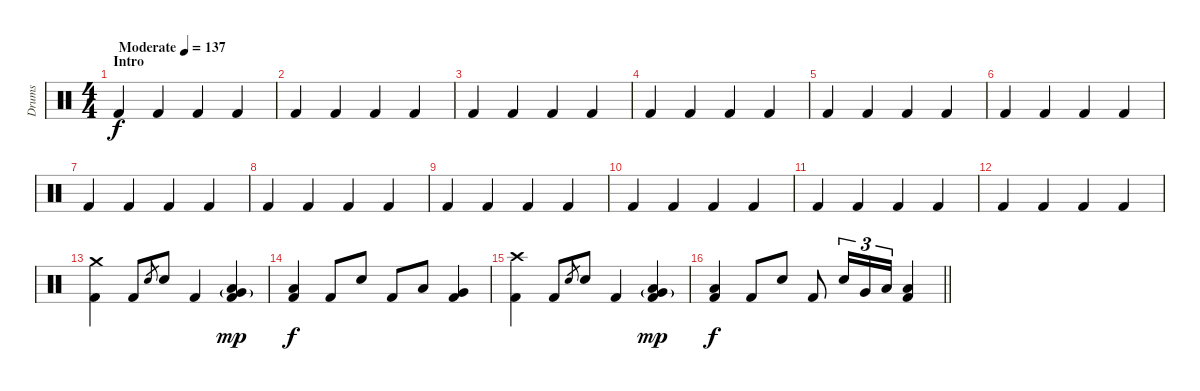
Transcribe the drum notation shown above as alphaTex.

\track ("Drums" "Drums") {instrument percussion}
\staff {score}
\articulation defaults
\ts (4 4)
\section ("" "Intro")
\tempo (137 "Moderate")
\clef neutral
\ks c "Kick (hit) 2".4{dy f} "Kick (hit) 2".4 "Kick (hit) 2".4 "Kick (hit) 2".4
|
"Kick (hit) 2".4 "Kick (hit) 2".4 "Kick (hit) 2".4 "Kick (hit) 2".4 |
"Kick (hit) 2".4 "Kick (hit) 2".4 "Kick (hit) 2".4 "Kick (hit) 2".4 |
"Kick (hit) 2".4 "Kick (hit) 2".4 "Kick (hit) 2".4 "Kick (hit) 2".4 |
"Kick (hit) 2".4 "Kick (hit) 2".4 "Kick (hit) 2".4 "Kick (hit) 2".4 |
"Kick (hit) 2".4 "Kick (hit) 2".4 "Kick (hit) 2".4 "Kick (hit) 2".4 |
"Kick (hit) 2".4 "Kick (hit) 2".4 "Kick (hit) 2".4 "Kick (hit) 2".4 |
"Kick (hit) 2".4 "Kick (hit) 2".4 "Kick (hit) 2".4 "Kick (hit) 2".4 |
"Kick (hit) 2".4 "Kick (hit) 2".4 "Kick (hit) 2".4 "Kick (hit) 2".4 |
"Kick (hit) 2".4 "Kick (hit) 2".4 "Kick (hit) 2".4 "Kick (hit) 2".4 |
"Kick (hit) 2".4 "Kick (hit) 2".4 "Kick (hit) 2".4 "Kick (hit) 2".4 |
"Kick (hit) 2".4 "Kick (hit) 2".4 "Kick (hit) 2".4 "Kick (hit) 2".4 |
("Crash medium (hit)" "Kick (hit) 2").4 "Kick (hit) 2".8 "Electric Snare (hit)".8{gr} "Electric Snare (hit)".8 "Kick (hit) 2".4 ("Very Low Tom (hit)"{g} "Low Tom (hit)" "Kick (hit) 2").4{dy mp} |
("Low Floor Tom (hit)" "Kick (hit) 2").4{dy f} "Kick (hit) 2".8 "Electric Snare (hit)".8 "Kick (hit) 2".8 "Low Tom (hit)".8 ("Very Low Tom (hit)" "Kick (hit) 2").4 |
("Crash high (hit)" "Kick (hit) 2").4 "Kick (hit) 2".8 "Electric Snare (hit)".8{gr} "Electric Snare (hit)".8 "Kick (hit) 2".4 ("Very Low Tom (hit)"{g} "Low Tom (hit)" "Kick (hit) 2").4{dy mp} |
\barLineRight lightlight
("Low Floor Tom (hit)" "Kick (hit) 2").4{dy f} "Kick (hit) 2".8 "Electric Snare (hit)".8 "Kick (hit) 2".8 "Electric Snare (hit)".16{tu (3 2)} "Very Low Tom (hit)".16{tu (3 2)} "Low Floor Tom (hit)".16{tu (3 2)} ("Low Floor Tom (hit)" "Kick (hit) 2").4
